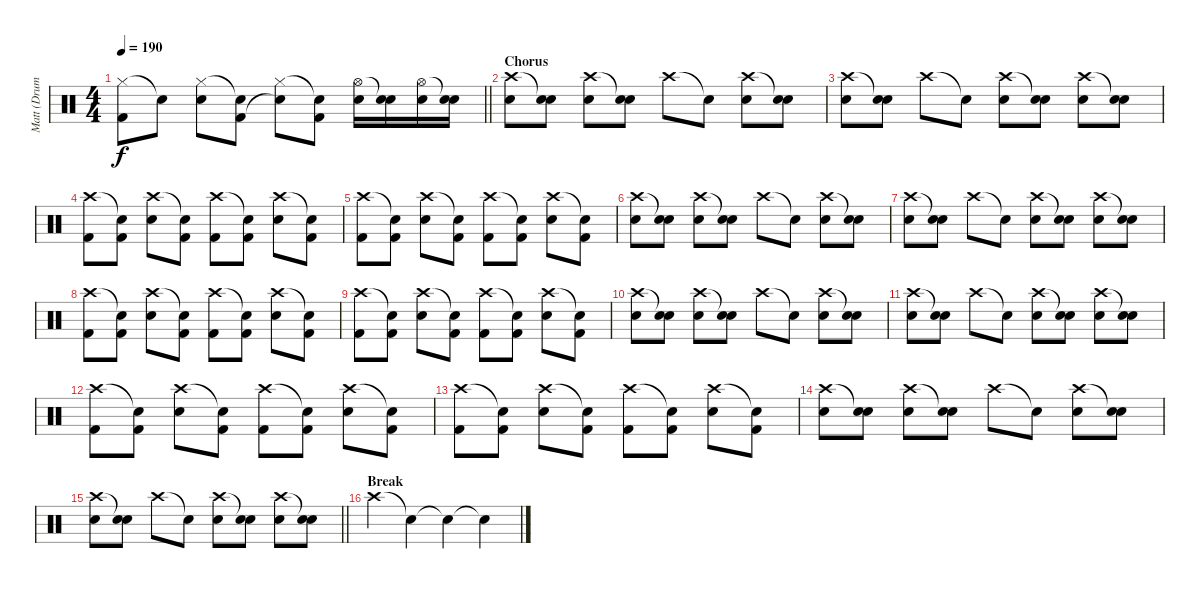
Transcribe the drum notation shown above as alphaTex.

\track ("Matt (Drums)" "Matt (Drum") {instrument percussion}
\staff {score}
\articulation defaults
\ts (4 4)
\tempo 190
\clef neutral
\barLineRight lightlight
\ks c
("Hi-Hat (closed)" "Kick (hit) 2").8{dy f} "Snare (hit)"{t}.8 ("Hi-Hat (closed)" "Snare (hit) 2").8 ("Snare (hit)"{t} "Kick (hit) 2").8 ("Hi-Hat (closed)" "Snare (hit)"{t}).8 ("Snare (hit)"{t} "Kick (hit) 2").8 ("Hi-Hat (open)" "Snare (hit) 2").16 ("Snare (hit)"{t} "Snare (hit) 2").16 ("Hi-Hat (open)" "Snare (hit) 2").16 ("Snare (hit)"{t} "Snare (hit) 2").16 |
\section ("" "Chorus")
("Crash high (hit)" "Snare (hit) 2").8 ("Snare (hit)"{t} "Snare (hit) 2").8 ("Crash high (hit)" "Snare (hit) 2").8 ("Snare (hit)"{t} "Snare (hit) 2").8 "Crash high (hit)".8 "Snare (hit)"{t}.8 ("Crash high (hit)" "Snare (hit) 2").8 ("Snare (hit)"{t} "Snare (hit) 2").8 |
("Crash high (hit)" "Snare (hit) 2").8 ("Snare (hit)"{t} "Snare (hit) 2").8 "Crash high (hit)".8 "Snare (hit)"{t}.8 ("Crash high (hit)" "Snare (hit) 2").8 ("Snare (hit)"{t} "Snare (hit) 2").8 ("Crash high (hit)" "Snare (hit) 2").8 ("Snare (hit)"{t} "Snare (hit) 2").8 |
("Crash high (hit)" "Kick (hit) 2").8 ("Snare (hit)"{t} "Kick (hit) 2").8 ("Crash high (hit)" "Snare (hit) 2").8 ("Snare (hit)"{t} "Kick (hit) 2").8 ("Crash high (hit)" "Kick (hit) 2").8 ("Snare (hit)"{t} "Kick (hit) 2").8 ("Crash high (hit)" "Snare (hit) 2").8 ("Snare (hit)"{t} "Kick (hit) 2").8 |
("Crash high (hit)" "Kick (hit) 2").8 ("Snare (hit)"{t} "Kick (hit) 2").8 ("Crash high (hit)" "Snare (hit) 2").8 ("Snare (hit)"{t} "Kick (hit) 2").8 ("Crash high (hit)" "Kick (hit) 2").8 ("Snare (hit)"{t} "Kick (hit) 2").8 ("Crash high (hit)" "Snare (hit) 2").8 ("Snare (hit)"{t} "Kick (hit) 2").8 |
("Crash high (hit)" "Snare (hit) 2").8 ("Snare (hit)"{t} "Snare (hit) 2").8 ("Crash high (hit)" "Snare (hit) 2").8 ("Snare (hit)"{t} "Snare (hit) 2").8 "Crash high (hit)".8 "Snare (hit)"{t}.8 ("Crash high (hit)" "Snare (hit) 2").8 ("Snare (hit)"{t} "Snare (hit) 2").8 |
("Crash high (hit)" "Snare (hit) 2").8 ("Snare (hit)"{t} "Snare (hit) 2").8 "Crash high (hit)".8 "Snare (hit)"{t}.8 ("Crash high (hit)" "Snare (hit) 2").8 ("Snare (hit)"{t} "Snare (hit) 2").8 ("Crash high (hit)" "Snare (hit) 2").8 ("Snare (hit)"{t} "Snare (hit) 2").8 |
("Crash high (hit)" "Kick (hit) 2").8 ("Snare (hit)"{t} "Kick (hit) 2").8 ("Crash high (hit)" "Snare (hit) 2").8 ("Snare (hit)"{t} "Kick (hit) 2").8 ("Crash high (hit)" "Kick (hit) 2").8 ("Snare (hit)"{t} "Kick (hit) 2").8 ("Crash high (hit)" "Snare (hit) 2").8 ("Snare (hit)"{t} "Kick (hit) 2").8 |
("Crash high (hit)" "Kick (hit) 2").8 ("Snare (hit)"{t} "Kick (hit) 2").8 ("Crash high (hit)" "Snare (hit) 2").8 ("Snare (hit)"{t} "Kick (hit) 2").8 ("Crash high (hit)" "Kick (hit) 2").8 ("Snare (hit)"{t} "Kick (hit) 2").8 ("Crash high (hit)" "Snare (hit) 2").8 ("Snare (hit)"{t} "Kick (hit) 2").8 |
("Crash high (hit)" "Snare (hit) 2").8 ("Snare (hit)"{t} "Snare (hit) 2").8 ("Crash high (hit)" "Snare (hit) 2").8 ("Snare (hit)"{t} "Snare (hit) 2").8 "Crash high (hit)".8 "Snare (hit)"{t}.8 ("Crash high (hit)" "Snare (hit) 2").8 ("Snare (hit)"{t} "Snare (hit) 2").8 |
("Crash high (hit)" "Snare (hit) 2").8 ("Snare (hit)"{t} "Snare (hit) 2").8 "Crash high (hit)".8 "Snare (hit)"{t}.8 ("Crash high (hit)" "Snare (hit) 2").8 ("Snare (hit)"{t} "Snare (hit) 2").8 ("Crash high (hit)" "Snare (hit) 2").8 ("Snare (hit)"{t} "Snare (hit) 2").8 |
("Crash high (hit)" "Kick (hit) 2").8 ("Snare (hit)"{t} "Kick (hit) 2").8 ("Crash high (hit)" "Snare (hit) 2").8 ("Snare (hit)"{t} "Kick (hit) 2").8 ("Crash high (hit)" "Kick (hit) 2").8 ("Snare (hit)"{t} "Kick (hit) 2").8 ("Crash high (hit)" "Snare (hit) 2").8 ("Snare (hit)"{t} "Kick (hit) 2").8 |
("Crash high (hit)" "Kick (hit) 2").8 ("Snare (hit)"{t} "Kick (hit) 2").8 ("Crash high (hit)" "Snare (hit) 2").8 ("Snare (hit)"{t} "Kick (hit) 2").8 ("Crash high (hit)" "Kick (hit) 2").8 ("Snare (hit)"{t} "Kick (hit) 2").8 ("Crash high (hit)" "Snare (hit) 2").8 ("Snare (hit)"{t} "Kick (hit) 2").8 |
("Crash high (hit)" "Snare (hit) 2").8 ("Snare (hit)"{t} "Snare (hit) 2").8 ("Crash high (hit)" "Snare (hit) 2").8 ("Snare (hit)"{t} "Snare (hit) 2").8 "Crash high (hit)".8 "Snare (hit)"{t}.8 ("Crash high (hit)" "Snare (hit) 2").8 ("Snare (hit)"{t} "Snare (hit) 2").8 |
\barLineRight lightlight
("Crash high (hit)" "Snare (hit) 2").8 ("Snare (hit)"{t} "Snare (hit) 2").8 "Crash high (hit)".8 "Snare (hit)"{t}.8 ("Crash high (hit)" "Snare (hit) 2").8 ("Snare (hit)"{t} "Snare (hit) 2").8 ("Crash high (hit)" "Snare (hit) 2").8 ("Snare (hit)"{t} "Snare (hit) 2").8 |
\section ("" "Break")
"Crash high (hit)".4 "Snare (hit)"{t}.4 "Snare (hit)"{t}.4 "Snare (hit)"{t}.4
